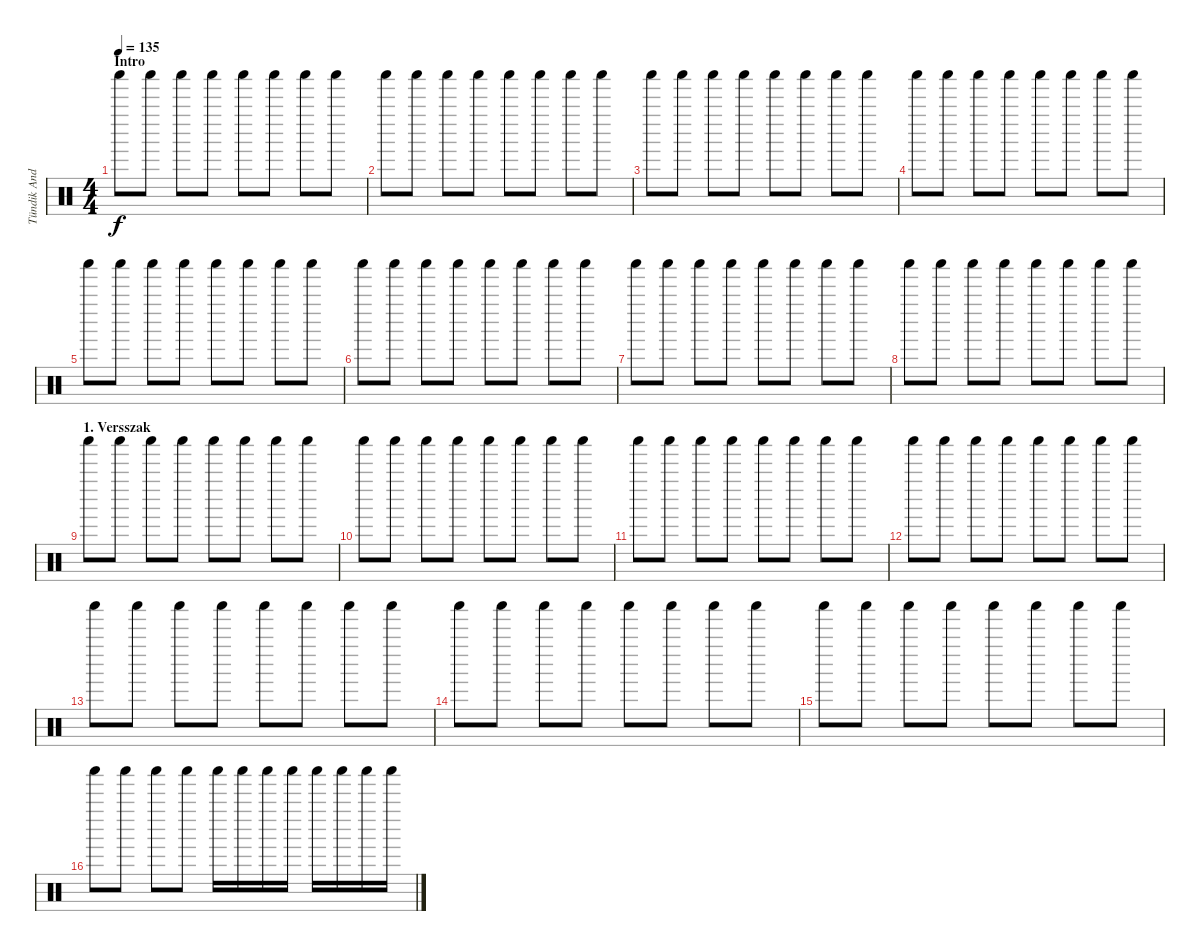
\track ("Tündik András - Shaker" "Tündik And") {instrument percussion}
\staff {score}
\articulation defaults
\ts (4 4)
\section ("" "Intro")
\tempo 135
\clef neutral
\ks c "Shaker (hit)".8{dy f} "Shaker (hit)".8 "Shaker (hit)".8 "Shaker (hit)".8 "Shaker (hit)".8 "Shaker (hit)".8 "Shaker (hit)".8 "Shaker (hit)".8
|
"Shaker (hit)".8 "Shaker (hit)".8 "Shaker (hit)".8 "Shaker (hit)".8 "Shaker (hit)".8 "Shaker (hit)".8 "Shaker (hit)".8 "Shaker (hit)".8 |
"Shaker (hit)".8 "Shaker (hit)".8 "Shaker (hit)".8 "Shaker (hit)".8 "Shaker (hit)".8 "Shaker (hit)".8 "Shaker (hit)".8 "Shaker (hit)".8 |
"Shaker (hit)".8 "Shaker (hit)".8 "Shaker (hit)".8 "Shaker (hit)".8 "Shaker (hit)".8 "Shaker (hit)".8 "Shaker (hit)".8 "Shaker (hit)".8 |
"Shaker (hit)".8 "Shaker (hit)".8 "Shaker (hit)".8 "Shaker (hit)".8 "Shaker (hit)".8 "Shaker (hit)".8 "Shaker (hit)".8 "Shaker (hit)".8 |
"Shaker (hit)".8 "Shaker (hit)".8 "Shaker (hit)".8 "Shaker (hit)".8 "Shaker (hit)".8 "Shaker (hit)".8 "Shaker (hit)".8 "Shaker (hit)".8 |
"Shaker (hit)".8 "Shaker (hit)".8 "Shaker (hit)".8 "Shaker (hit)".8 "Shaker (hit)".8 "Shaker (hit)".8 "Shaker (hit)".8 "Shaker (hit)".8 |
"Shaker (hit)".8 "Shaker (hit)".8 "Shaker (hit)".8 "Shaker (hit)".8 "Shaker (hit)".8 "Shaker (hit)".8 "Shaker (hit)".8 "Shaker (hit)".8 |
\section ("" "1. Versszak")
"Shaker (hit)".8 "Shaker (hit)".8 "Shaker (hit)".8 "Shaker (hit)".8 "Shaker (hit)".8 "Shaker (hit)".8 "Shaker (hit)".8 "Shaker (hit)".8 |
"Shaker (hit)".8 "Shaker (hit)".8 "Shaker (hit)".8 "Shaker (hit)".8 "Shaker (hit)".8 "Shaker (hit)".8 "Shaker (hit)".8 "Shaker (hit)".8 |
"Shaker (hit)".8 "Shaker (hit)".8 "Shaker (hit)".8 "Shaker (hit)".8 "Shaker (hit)".8 "Shaker (hit)".8 "Shaker (hit)".8 "Shaker (hit)".8 |
"Shaker (hit)".8 "Shaker (hit)".8 "Shaker (hit)".8 "Shaker (hit)".8 "Shaker (hit)".8 "Shaker (hit)".8 "Shaker (hit)".8 "Shaker (hit)".8 |
"Shaker (hit)".8 "Shaker (hit)".8 "Shaker (hit)".8 "Shaker (hit)".8 "Shaker (hit)".8 "Shaker (hit)".8 "Shaker (hit)".8 "Shaker (hit)".8 |
"Shaker (hit)".8 "Shaker (hit)".8 "Shaker (hit)".8 "Shaker (hit)".8 "Shaker (hit)".8 "Shaker (hit)".8 "Shaker (hit)".8 "Shaker (hit)".8 |
"Shaker (hit)".8 "Shaker (hit)".8 "Shaker (hit)".8 "Shaker (hit)".8 "Shaker (hit)".8 "Shaker (hit)".8 "Shaker (hit)".8 "Shaker (hit)".8 |
"Shaker (hit)".8 "Shaker (hit)".8 "Shaker (hit)".8 "Shaker (hit)".8 "Shaker (hit)".16 "Shaker (hit)".16 "Shaker (hit)".16 "Shaker (hit)".16 "Shaker (hit)".16 "Shaker (hit)".16 "Shaker (hit)".16 "Shaker (hit)".16
